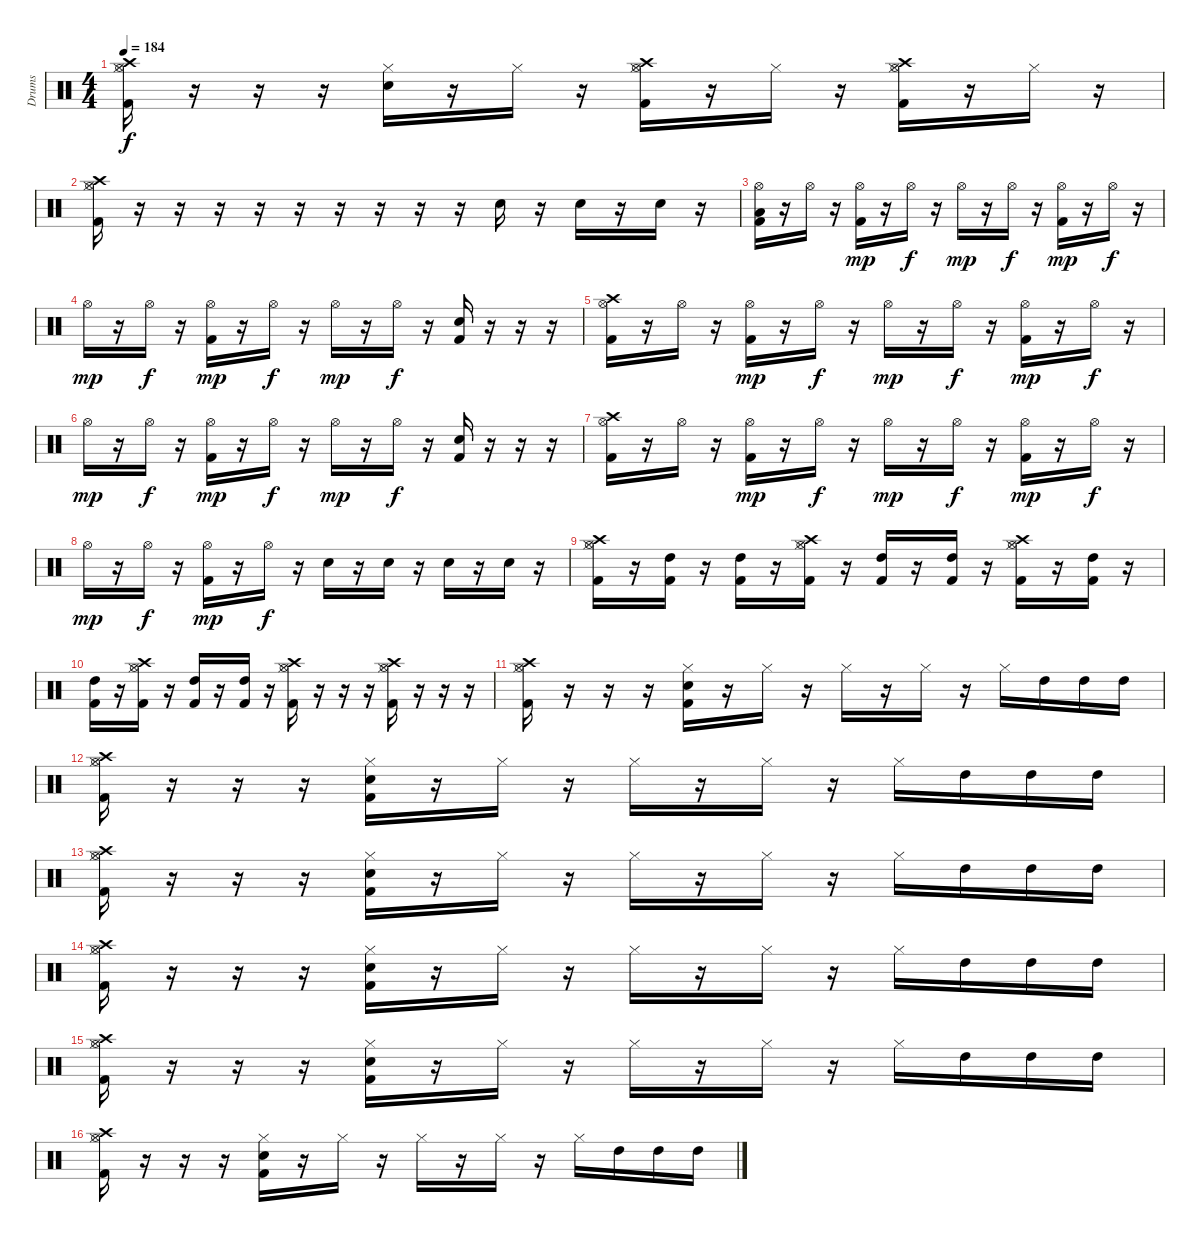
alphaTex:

\track ("Drums" "Drums") {instrument percussion}
\staff {score}
\articulation defaults
\ts (4 4)
\tempo 184
\clef neutral
\ks c
("Kick (hit) 2" "Hi-Hat (closed)" "Hi-Hat (open)" "Crash high (hit)").16{dy f} r.16 r.16 r.16 ("Electric Snare (hit)" "Hi-Hat (closed)").16 r.16 "Hi-Hat (closed)".16 r.16 ("Kick (hit) 2" "Hi-Hat (closed)" "Hi-Hat (open)" "Crash high (hit)").16 r.16 "Hi-Hat (closed)".16 r.16 ("Kick (hit) 2" "Hi-Hat (closed)" "Hi-Hat (open)" "Crash high (hit)").16 r.16 "Hi-Hat (closed)".16 r.16 |
("Kick (hit) 2" "Hi-Hat (closed)" "Hi-Hat (open)" "Crash high (hit)").16 r.16 r.16 r.16 r.16 r.16 r.16 r.16 r.16 r.16 "Electric Snare (hit)".16 r.16 "Electric Snare (hit)".16 r.16 "Electric Snare (hit)".16 r.16 |
("Kick (hit) 2" "Low Tom (hit)" "Hi-Hat (open)").16 r.16 "Hi-Hat (open)".16 r.16 ("Kick (hit) 2" "Hi-Hat (open)").16{dy mp} r.16 "Hi-Hat (open)".16{dy f} r.16 "Hi-Hat (open)".16{dy mp} r.16 "Hi-Hat (open)".16{dy f} r.16 ("Kick (hit) 2" "Hi-Hat (open)").16{dy mp} r.16 "Hi-Hat (open)".16{dy f} r.16 |
"Hi-Hat (open)".16{dy mp} r.16 "Hi-Hat (open)".16{dy f} r.16 ("Kick (hit) 2" "Hi-Hat (open)").16{dy mp} r.16 "Hi-Hat (open)".16{dy f} r.16 "Hi-Hat (open)".16{dy mp} r.16 "Hi-Hat (open)".16{dy f} r.16 ("Snare (hit) 2" "Kick (hit) 2").16 r.16 r.16 r.16 |
("Kick (hit) 2" "Hi-Hat (open)" "Crash high (hit)").16 r.16 "Hi-Hat (open)".16 r.16 ("Kick (hit) 2" "Hi-Hat (open)").16{dy mp} r.16 "Hi-Hat (open)".16{dy f} r.16 "Hi-Hat (open)".16{dy mp} r.16 "Hi-Hat (open)".16{dy f} r.16 ("Kick (hit) 2" "Hi-Hat (open)").16{dy mp} r.16 "Hi-Hat (open)".16{dy f} r.16 |
"Hi-Hat (open)".16{dy mp} r.16 "Hi-Hat (open)".16{dy f} r.16 ("Kick (hit) 2" "Hi-Hat (open)").16{dy mp} r.16 "Hi-Hat (open)".16{dy f} r.16 "Hi-Hat (open)".16{dy mp} r.16 "Hi-Hat (open)".16{dy f} r.16 ("Snare (hit) 2" "Kick (hit) 2").16 r.16 r.16 r.16 |
("Kick (hit) 2" "Hi-Hat (open)" "Crash high (hit)").16 r.16 "Hi-Hat (open)".16 r.16 ("Kick (hit) 2" "Hi-Hat (open)").16{dy mp} r.16 "Hi-Hat (open)".16{dy f} r.16 "Hi-Hat (open)".16{dy mp} r.16 "Hi-Hat (open)".16{dy f} r.16 ("Kick (hit) 2" "Hi-Hat (open)").16{dy mp} r.16 "Hi-Hat (open)".16{dy f} r.16 |
"Hi-Hat (open)".16{dy mp} r.16 "Hi-Hat (open)".16{dy f} r.16 ("Kick (hit) 2" "Hi-Hat (open)").16{dy mp} r.16 "Hi-Hat (open)".16{dy f} r.16 "Electric Snare (hit)".16 r.16 "Electric Snare (hit)".16 r.16 "Electric Snare (hit)".16 r.16 "Electric Snare (hit)".16 r.16 |
("Kick (hit) 2" "Hi-Hat (closed)" "Hi-Hat (open)" "Crash high (hit)").16 r.16 ("High Tom (hit)" "Kick (hit) 2").16 r.16 ("High Tom (hit)" "Kick (hit) 2").16 r.16 ("Kick (hit) 2" "Hi-Hat (closed)" "Hi-Hat (open)" "Crash high (hit)").16 r.16 ("High Tom (hit)" "Kick (hit) 2").16 r.16 ("High Tom (hit)" "Kick (hit) 2").16 r.16 ("Kick (hit) 2" "Hi-Hat (closed)" "Hi-Hat (open)" "Crash high (hit)").16 r.16 ("High Tom (hit)" "Kick (hit) 2").16 r.16 |
("High Tom (hit)" "Kick (hit) 2").16 r.16 ("Kick (hit) 2" "Hi-Hat (closed)" "Hi-Hat (open)" "Crash high (hit)").16 r.16 ("High Tom (hit)" "Kick (hit) 2").16 r.16 ("High Tom (hit)" "Kick (hit) 2").16 r.16 ("Kick (hit) 2" "Hi-Hat (closed)" "Hi-Hat (open)" "Crash high (hit)").16 r.16 r.16 r.16 ("Kick (hit) 2" "Hi-Hat (closed)" "Hi-Hat (open)" "Crash high (hit)").16 r.16 r.16 r.16 |
("Kick (hit) 2" "Hi-Hat (closed)" "Hi-Hat (open)" "Crash high (hit)").16 r.16 r.16 r.16 ("Kick (hit) 2" "Snare (hit) 2" "Hi-Hat (closed)").16 r.16 "Hi-Hat (closed)".16 r.16 "Hi-Hat (closed)".16 r.16 "Hi-Hat (closed)".16 r.16 "Hi-Hat (closed)".16 "High Tom (hit)".16 "High Tom (hit)".16 "High Tom (hit)".16 |
("Kick (hit) 2" "Hi-Hat (closed)" "Hi-Hat (open)" "Crash high (hit)").16 r.16 r.16 r.16 ("Kick (hit) 2" "Snare (hit) 2" "Hi-Hat (closed)").16 r.16 "Hi-Hat (closed)".16 r.16 "Hi-Hat (closed)".16 r.16 "Hi-Hat (closed)".16 r.16 "Hi-Hat (closed)".16 "High Tom (hit)".16 "High Tom (hit)".16 "High Tom (hit)".16 |
("Kick (hit) 2" "Hi-Hat (closed)" "Hi-Hat (open)" "Crash high (hit)").16 r.16 r.16 r.16 ("Kick (hit) 2" "Snare (hit) 2" "Hi-Hat (closed)").16 r.16 "Hi-Hat (closed)".16 r.16 "Hi-Hat (closed)".16 r.16 "Hi-Hat (closed)".16 r.16 "Hi-Hat (closed)".16 "High Tom (hit)".16 "High Tom (hit)".16 "High Tom (hit)".16 |
("Kick (hit) 2" "Hi-Hat (closed)" "Hi-Hat (open)" "Crash high (hit)").16 r.16 r.16 r.16 ("Kick (hit) 2" "Snare (hit) 2" "Hi-Hat (closed)").16 r.16 "Hi-Hat (closed)".16 r.16 "Hi-Hat (closed)".16 r.16 "Hi-Hat (closed)".16 r.16 "Hi-Hat (closed)".16 "High Tom (hit)".16 "High Tom (hit)".16 "High Tom (hit)".16 |
("Kick (hit) 2" "Hi-Hat (closed)" "Hi-Hat (open)" "Crash high (hit)").16 r.16 r.16 r.16 ("Kick (hit) 2" "Snare (hit) 2" "Hi-Hat (closed)").16 r.16 "Hi-Hat (closed)".16 r.16 "Hi-Hat (closed)".16 r.16 "Hi-Hat (closed)".16 r.16 "Hi-Hat (closed)".16 "High Tom (hit)".16 "High Tom (hit)".16 "High Tom (hit)".16 |
("Kick (hit) 2" "Hi-Hat (closed)" "Hi-Hat (open)" "Crash high (hit)").16 r.16 r.16 r.16 ("Kick (hit) 2" "Snare (hit) 2" "Hi-Hat (closed)").16 r.16 "Hi-Hat (closed)".16 r.16 "Hi-Hat (closed)".16 r.16 "Hi-Hat (closed)".16 r.16 "Hi-Hat (closed)".16 "High Tom (hit)".16 "High Tom (hit)".16 "High Tom (hit)".16
